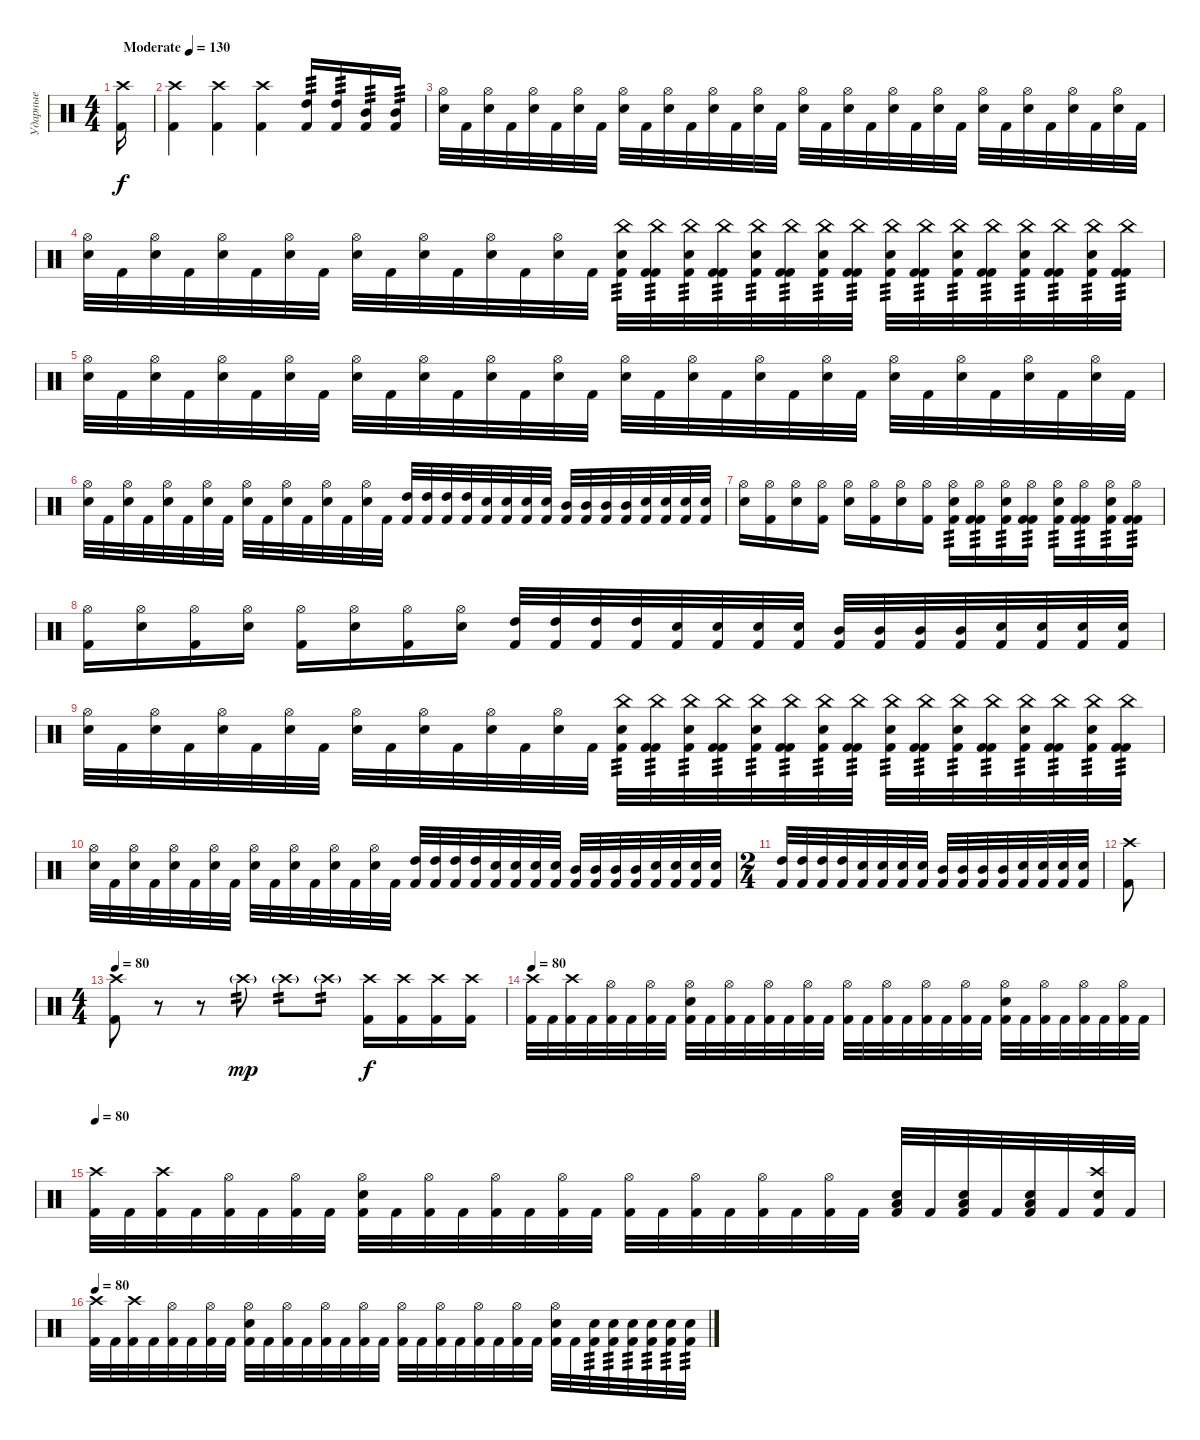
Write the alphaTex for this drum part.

\track ("Ударные" "Ударные") {instrument percussion}
\staff {score}
\articulation defaults
\ts (4 4)
\tempo (130 "Moderate")
\clef neutral
\ks c
("Kick (hit) 2" "Crash high (hit)").16{dy f} |
("Kick (hit) 2" "Crash high (hit)").4 ("Crash high (hit)" "Kick (hit) 2").4 ("Kick (hit) 2" "Crash high (hit)").4 ("Kick (hit) 2" "High Tom (hit)").16{tp 3} ("Kick (hit) 2" "High Tom (hit)").16{tp 3} ("Kick (hit) 2" "Mid Tom (hit)").16{tp 3} ("Kick (hit) 2" "Mid Tom (hit)").16{tp 3} |
("Electric Snare (hit)" "Hi-Hat (open)").32 "Kick (hit) 2".32 ("Electric Snare (hit)" "Hi-Hat (open)").32 "Kick (hit) 2".32 ("Electric Snare (hit)" "Hi-Hat (open)").32 "Kick (hit) 2".32 ("Electric Snare (hit)" "Hi-Hat (open)").32 "Kick (hit) 2".32 ("Electric Snare (hit)" "Hi-Hat (open)").32 "Kick (hit) 2".32 ("Electric Snare (hit)" "Hi-Hat (open)").32 "Kick (hit) 2".32 ("Electric Snare (hit)" "Hi-Hat (open)").32 "Kick (hit) 2".32 ("Electric Snare (hit)" "Hi-Hat (open)").32 "Kick (hit) 2".32 ("Electric Snare (hit)" "Hi-Hat (open)").32 "Kick (hit) 2".32 ("Electric Snare (hit)" "Hi-Hat (open)").32 "Kick (hit) 2".32 ("Electric Snare (hit)" "Hi-Hat (open)").32 "Kick (hit) 2".32 ("Electric Snare (hit)" "Hi-Hat (open)").32 "Kick (hit) 2".32 ("Electric Snare (hit)" "Hi-Hat (open)").32 "Kick (hit) 2".32 ("Electric Snare (hit)" "Hi-Hat (open)").32 "Kick (hit) 2".32 ("Electric Snare (hit)" "Hi-Hat (open)").32 "Kick (hit) 2".32 ("Electric Snare (hit)" "Hi-Hat (open)").32 "Kick (hit) 2".32 |
("Electric Snare (hit)" "Hi-Hat (open)").32 "Kick (hit) 2".32 ("Electric Snare (hit)" "Hi-Hat (open)").32 "Kick (hit) 2".32 ("Electric Snare (hit)" "Hi-Hat (open)").32 "Kick (hit) 2".32 ("Electric Snare (hit)" "Hi-Hat (open)").32 "Kick (hit) 2".32 ("Electric Snare (hit)" "Hi-Hat (open)").32 "Kick (hit) 2".32 ("Electric Snare (hit)" "Hi-Hat (open)").32 "Kick (hit) 2".32 ("Electric Snare (hit)" "Hi-Hat (open)").32 "Kick (hit) 2".32 ("Electric Snare (hit)" "Hi-Hat (open)").32 "Kick (hit) 2".32 ("Kick (hit) 2" "Electric Snare (hit)" "China (hit)").32{tp 3} ("Kick (hit) 2" "Kick (hit) 2" "China (hit)").32{tp 3} ("Kick (hit) 2" "Electric Snare (hit)" "China (hit)").32{tp 3} ("Kick (hit) 2" "Kick (hit) 2" "China (hit)").32{tp 3} ("Kick (hit) 2" "Electric Snare (hit)" "China (hit)").32{tp 3} ("Kick (hit) 2" "Kick (hit) 2" "China (hit)").32{tp 3} ("Kick (hit) 2" "Electric Snare (hit)" "China (hit)").32{tp 3} ("Kick (hit) 2" "Kick (hit) 2" "China (hit)").32{tp 3} ("Kick (hit) 2" "Electric Snare (hit)" "China (hit)").32{tp 3} ("Kick (hit) 2" "Kick (hit) 2" "China (hit)").32{tp 3} ("Kick (hit) 2" "Electric Snare (hit)" "China (hit)").32{tp 3} ("Kick (hit) 2" "Kick (hit) 2" "China (hit)").32{tp 3} ("Kick (hit) 2" "Electric Snare (hit)" "China (hit)").32{tp 3} ("Kick (hit) 2" "Kick (hit) 2" "China (hit)").32{tp 3} ("Kick (hit) 2" "Electric Snare (hit)" "China (hit)").32{tp 3} ("Kick (hit) 2" "Kick (hit) 2" "China (hit)").32{tp 3} |
("Electric Snare (hit)" "Hi-Hat (open)").32 "Kick (hit) 2".32 ("Electric Snare (hit)" "Hi-Hat (open)").32 "Kick (hit) 2".32 ("Electric Snare (hit)" "Hi-Hat (open)").32 "Kick (hit) 2".32 ("Electric Snare (hit)" "Hi-Hat (open)").32 "Kick (hit) 2".32 ("Electric Snare (hit)" "Hi-Hat (open)").32 "Kick (hit) 2".32 ("Electric Snare (hit)" "Hi-Hat (open)").32 "Kick (hit) 2".32 ("Electric Snare (hit)" "Hi-Hat (open)").32 "Kick (hit) 2".32 ("Electric Snare (hit)" "Hi-Hat (open)").32 "Kick (hit) 2".32 ("Electric Snare (hit)" "Hi-Hat (open)").32 "Kick (hit) 2".32 ("Electric Snare (hit)" "Hi-Hat (open)").32 "Kick (hit) 2".32 ("Electric Snare (hit)" "Hi-Hat (open)").32 "Kick (hit) 2".32 ("Electric Snare (hit)" "Hi-Hat (open)").32 "Kick (hit) 2".32 ("Electric Snare (hit)" "Hi-Hat (open)").32 "Kick (hit) 2".32 ("Electric Snare (hit)" "Hi-Hat (open)").32 "Kick (hit) 2".32 ("Electric Snare (hit)" "Hi-Hat (open)").32 "Kick (hit) 2".32 ("Electric Snare (hit)" "Hi-Hat (open)").32 "Kick (hit) 2".32 |
("Electric Snare (hit)" "Hi-Hat (open)").32 "Kick (hit) 2".32 ("Electric Snare (hit)" "Hi-Hat (open)").32 "Kick (hit) 2".32 ("Electric Snare (hit)" "Hi-Hat (open)").32 "Kick (hit) 2".32 ("Electric Snare (hit)" "Hi-Hat (open)").32 "Kick (hit) 2".32 ("Electric Snare (hit)" "Hi-Hat (open)").32 "Kick (hit) 2".32 ("Electric Snare (hit)" "Hi-Hat (open)").32 "Kick (hit) 2".32 ("Electric Snare (hit)" "Hi-Hat (open)").32 "Kick (hit) 2".32 ("Electric Snare (hit)" "Hi-Hat (open)").32 "Kick (hit) 2".32 ("High Tom (hit)" "Kick (hit) 2").32 ("High Tom (hit)" "Kick (hit) 2").32 ("High Tom (hit)" "Kick (hit) 2").32 ("High Tom (hit)" "Kick (hit) 2").32 ("Electric Snare (hit)" "Kick (hit) 2").32 ("Electric Snare (hit)" "Kick (hit) 2").32 ("Electric Snare (hit)" "Kick (hit) 2").32 ("Electric Snare (hit)" "Kick (hit) 2").32 ("Mid Tom (hit)" "Kick (hit) 2").32 ("Mid Tom (hit)" "Kick (hit) 2").32 ("Mid Tom (hit)" "Kick (hit) 2").32 ("Mid Tom (hit)" "Kick (hit) 2").32 ("Electric Snare (hit)" "Kick (hit) 2").32 ("Electric Snare (hit)" "Kick (hit) 2").32 ("Electric Snare (hit)" "Kick (hit) 2").32 ("Electric Snare (hit)" "Kick (hit) 2").32 |
("Hi-Hat (open)" "Electric Snare (hit)").16 ("Hi-Hat (open)" "Kick (hit) 2").16 ("Hi-Hat (open)" "Electric Snare (hit)").16 ("Hi-Hat (open)" "Kick (hit) 2").16 ("Hi-Hat (open)" "Electric Snare (hit)").16 ("Hi-Hat (open)" "Kick (hit) 2").16 ("Hi-Hat (open)" "Electric Snare (hit)").16 ("Hi-Hat (open)" "Kick (hit) 2").16 ("Hi-Hat (open)" "Electric Snare (hit)" "Kick (hit) 2").16{tp 3} ("Kick (hit) 2" "Hi-Hat (open)" "Kick (hit) 2").16{tp 3} ("Hi-Hat (open)" "Electric Snare (hit)" "Kick (hit) 2").16{tp 3} ("Kick (hit) 2" "Hi-Hat (open)" "Kick (hit) 2").16{tp 3} ("Hi-Hat (open)" "Electric Snare (hit)" "Kick (hit) 2").16{tp 3} ("Kick (hit) 2" "Hi-Hat (open)" "Kick (hit) 2").16{tp 3} ("Hi-Hat (open)" "Electric Snare (hit)" "Kick (hit) 2").16{tp 3} ("Kick (hit) 2" "Hi-Hat (open)" "Kick (hit) 2").16{tp 3} |
("Hi-Hat (open)" "Kick (hit) 2").16 ("Hi-Hat (open)" "Electric Snare (hit)").16 ("Hi-Hat (open)" "Kick (hit) 2").16 ("Hi-Hat (open)" "Electric Snare (hit)").16 ("Hi-Hat (open)" "Kick (hit) 2").16 ("Hi-Hat (open)" "Electric Snare (hit)").16 ("Hi-Hat (open)" "Kick (hit) 2").16 ("Hi-Hat (open)" "Electric Snare (hit)").16 ("High Tom (hit)" "Kick (hit) 2").32 ("High Tom (hit)" "Kick (hit) 2").32 ("High Tom (hit)" "Kick (hit) 2").32 ("High Tom (hit)" "Kick (hit) 2").32 ("Electric Snare (hit)" "Kick (hit) 2").32 ("Electric Snare (hit)" "Kick (hit) 2").32 ("Electric Snare (hit)" "Kick (hit) 2").32 ("Electric Snare (hit)" "Kick (hit) 2").32 ("Mid Tom (hit)" "Kick (hit) 2").32 ("Mid Tom (hit)" "Kick (hit) 2").32 ("Mid Tom (hit)" "Kick (hit) 2").32 ("Mid Tom (hit)" "Kick (hit) 2").32 ("Electric Snare (hit)" "Kick (hit) 2").32 ("Electric Snare (hit)" "Kick (hit) 2").32 ("Electric Snare (hit)" "Kick (hit) 2").32 ("Electric Snare (hit)" "Kick (hit) 2").32 |
("Electric Snare (hit)" "Hi-Hat (open)").32 "Kick (hit) 2".32 ("Electric Snare (hit)" "Hi-Hat (open)").32 "Kick (hit) 2".32 ("Electric Snare (hit)" "Hi-Hat (open)").32 "Kick (hit) 2".32 ("Electric Snare (hit)" "Hi-Hat (open)").32 "Kick (hit) 2".32 ("Electric Snare (hit)" "Hi-Hat (open)").32 "Kick (hit) 2".32 ("Electric Snare (hit)" "Hi-Hat (open)").32 "Kick (hit) 2".32 ("Electric Snare (hit)" "Hi-Hat (open)").32 "Kick (hit) 2".32 ("Electric Snare (hit)" "Hi-Hat (open)").32 "Kick (hit) 2".32 ("Kick (hit) 2" "Electric Snare (hit)" "China (hit)").32{tp 3} ("Kick (hit) 2" "Kick (hit) 2" "China (hit)").32{tp 3} ("Kick (hit) 2" "Electric Snare (hit)" "China (hit)").32{tp 3} ("Kick (hit) 2" "Kick (hit) 2" "China (hit)").32{tp 3} ("Kick (hit) 2" "Electric Snare (hit)" "China (hit)").32{tp 3} ("Kick (hit) 2" "Kick (hit) 2" "China (hit)").32{tp 3} ("Kick (hit) 2" "Electric Snare (hit)" "China (hit)").32{tp 3} ("Kick (hit) 2" "Kick (hit) 2" "China (hit)").32{tp 3} ("Kick (hit) 2" "Electric Snare (hit)" "China (hit)").32{tp 3} ("Kick (hit) 2" "Kick (hit) 2" "China (hit)").32{tp 3} ("Kick (hit) 2" "Electric Snare (hit)" "China (hit)").32{tp 3} ("Kick (hit) 2" "Kick (hit) 2" "China (hit)").32{tp 3} ("Kick (hit) 2" "Electric Snare (hit)" "China (hit)").32{tp 3} ("Kick (hit) 2" "Kick (hit) 2" "China (hit)").32{tp 3} ("Kick (hit) 2" "Electric Snare (hit)" "China (hit)").32{tp 3} ("Kick (hit) 2" "Kick (hit) 2" "China (hit)").32{tp 3} |
("Electric Snare (hit)" "Hi-Hat (open)").32 "Kick (hit) 2".32 ("Electric Snare (hit)" "Hi-Hat (open)").32 "Kick (hit) 2".32 ("Electric Snare (hit)" "Hi-Hat (open)").32 "Kick (hit) 2".32 ("Electric Snare (hit)" "Hi-Hat (open)").32 "Kick (hit) 2".32 ("Electric Snare (hit)" "Hi-Hat (open)").32 "Kick (hit) 2".32 ("Electric Snare (hit)" "Hi-Hat (open)").32 "Kick (hit) 2".32 ("Electric Snare (hit)" "Hi-Hat (open)").32 "Kick (hit) 2".32 ("Electric Snare (hit)" "Hi-Hat (open)").32 "Kick (hit) 2".32 ("High Tom (hit)" "Kick (hit) 2").32 ("High Tom (hit)" "Kick (hit) 2").32 ("High Tom (hit)" "Kick (hit) 2").32 ("High Tom (hit)" "Kick (hit) 2").32 ("Electric Snare (hit)" "Kick (hit) 2").32 ("Electric Snare (hit)" "Kick (hit) 2").32 ("Electric Snare (hit)" "Kick (hit) 2").32 ("Electric Snare (hit)" "Kick (hit) 2").32 ("Mid Tom (hit)" "Kick (hit) 2").32 ("Mid Tom (hit)" "Kick (hit) 2").32 ("Mid Tom (hit)" "Kick (hit) 2").32 ("Mid Tom (hit)" "Kick (hit) 2").32 ("Electric Snare (hit)" "Kick (hit) 2").32 ("Electric Snare (hit)" "Kick (hit) 2").32 ("Electric Snare (hit)" "Kick (hit) 2").32 ("Electric Snare (hit)" "Kick (hit) 2").32 |
\ts (2 4)
("High Tom (hit)" "Kick (hit) 2").32 ("High Tom (hit)" "Kick (hit) 2").32 ("High Tom (hit)" "Kick (hit) 2").32 ("High Tom (hit)" "Kick (hit) 2").32 ("Electric Snare (hit)" "Kick (hit) 2").32 ("Electric Snare (hit)" "Kick (hit) 2").32 ("Electric Snare (hit)" "Kick (hit) 2").32 ("Electric Snare (hit)" "Kick (hit) 2").32 ("Mid Tom (hit)" "Kick (hit) 2").32 ("Mid Tom (hit)" "Kick (hit) 2").32 ("Mid Tom (hit)" "Kick (hit) 2").32 ("Mid Tom (hit)" "Kick (hit) 2").32 ("Electric Snare (hit)" "Kick (hit) 2").32 ("Electric Snare (hit)" "Kick (hit) 2").32 ("Electric Snare (hit)" "Kick (hit) 2").32 ("Electric Snare (hit)" "Kick (hit) 2").32 |
("Crash high (hit)" "Kick (hit) 2").8 |
\ts (4 4)
\tempo 80
("Crash high (hit)" "Kick (hit) 2").8 r.8 r.8 "Crash high (hit)"{g}.8{tp 2 dy mp} "Crash high (hit)"{g}.8{tp 2} "Crash high (hit)"{g}.8{tp 2} ("Kick (hit) 2" "Crash high (hit)").16{dy f} ("Kick (hit) 2" "Crash high (hit)").16 ("Kick (hit) 2" "Crash high (hit)").16 ("Kick (hit) 2" "Crash high (hit)").16 |
\tempo 80
("Kick (hit) 2" "Crash high (hit)").32 "Kick (hit) 2".32 ("Kick (hit) 2" "Crash high (hit)").32 "Kick (hit) 2".32 ("Kick (hit) 2" "Hi-Hat (open)").32 "Kick (hit) 2".32 ("Kick (hit) 2" "Hi-Hat (open)").32 "Kick (hit) 2".32 ("Kick (hit) 2" "Electric Snare (hit)" "Hi-Hat (open)").32 "Kick (hit) 2".32 ("Kick (hit) 2" "Hi-Hat (open)").32 "Kick (hit) 2".32 ("Kick (hit) 2" "Hi-Hat (open)").32 "Kick (hit) 2".32 ("Kick (hit) 2" "Hi-Hat (open)").32 "Kick (hit) 2".32 ("Kick (hit) 2" "Hi-Hat (open)").32 "Kick (hit) 2".32 ("Kick (hit) 2" "Hi-Hat (open)").32 "Kick (hit) 2".32 ("Kick (hit) 2" "Hi-Hat (open)").32 "Kick (hit) 2".32 ("Kick (hit) 2" "Hi-Hat (open)").32 "Kick (hit) 2".32 ("Kick (hit) 2" "Electric Snare (hit)" "Hi-Hat (open)").32 "Kick (hit) 2".32 ("Kick (hit) 2" "Hi-Hat (open)").32 "Kick (hit) 2".32 ("Kick (hit) 2" "Hi-Hat (open)").32 "Kick (hit) 2".32 ("Kick (hit) 2" "Hi-Hat (open)").32 "Kick (hit) 2".32 |
\tempo 80
("Kick (hit) 2" "Crash high (hit)").32 "Kick (hit) 2".32 ("Kick (hit) 2" "Crash high (hit)").32 "Kick (hit) 2".32 ("Kick (hit) 2" "Hi-Hat (open)").32 "Kick (hit) 2".32 ("Kick (hit) 2" "Hi-Hat (open)").32 "Kick (hit) 2".32 ("Kick (hit) 2" "Electric Snare (hit)" "Hi-Hat (open)").32 "Kick (hit) 2".32 ("Kick (hit) 2" "Hi-Hat (open)").32 "Kick (hit) 2".32 ("Kick (hit) 2" "Hi-Hat (open)").32 "Kick (hit) 2".32 ("Kick (hit) 2" "Hi-Hat (open)").32 "Kick (hit) 2".32 ("Kick (hit) 2" "Hi-Hat (open)").32 "Kick (hit) 2".32 ("Kick (hit) 2" "Hi-Hat (open)").32 "Kick (hit) 2".32 ("Kick (hit) 2" "Hi-Hat (open)").32 "Kick (hit) 2".32 ("Kick (hit) 2" "Hi-Hat (open)").32 "Kick (hit) 2".32 ("Kick (hit) 2" "Electric Snare (hit)" "Low Floor Tom (hit)").32 "Kick (hit) 2".32 ("Kick (hit) 2" "Electric Snare (hit)" "Low Floor Tom (hit)").32 "Kick (hit) 2".32 ("Kick (hit) 2" "Electric Snare (hit)" "Low Floor Tom (hit)").32 "Kick (hit) 2".32 ("Kick (hit) 2" "Electric Snare (hit)" "Crash high (hit)").32 "Kick (hit) 2".32 |
\tempo 80
("Kick (hit) 2" "Crash high (hit)").32 "Kick (hit) 2".32 ("Kick (hit) 2" "Crash high (hit)").32 "Kick (hit) 2".32 ("Kick (hit) 2" "Hi-Hat (open)").32 "Kick (hit) 2".32 ("Kick (hit) 2" "Hi-Hat (open)").32 "Kick (hit) 2".32 ("Kick (hit) 2" "Electric Snare (hit)" "Hi-Hat (open)").32 "Kick (hit) 2".32 ("Kick (hit) 2" "Hi-Hat (open)").32 "Kick (hit) 2".32 ("Kick (hit) 2" "Hi-Hat (open)").32 "Kick (hit) 2".32 ("Kick (hit) 2" "Hi-Hat (open)").32 "Kick (hit) 2".32 ("Kick (hit) 2" "Hi-Hat (open)").32 "Kick (hit) 2".32 ("Kick (hit) 2" "Hi-Hat (open)").32 "Kick (hit) 2".32 ("Kick (hit) 2" "Hi-Hat (open)").32 "Kick (hit) 2".32 ("Kick (hit) 2" "Hi-Hat (open)").32 "Kick (hit) 2".32 ("Kick (hit) 2" "Electric Snare (hit)" "Hi-Hat (open)").32 "Kick (hit) 2".32 ("Kick (hit) 2" "Electric Snare (hit)").32{tp 3} ("Kick (hit) 2" "Electric Snare (hit)").32{tp 3} ("Kick (hit) 2" "Electric Snare (hit)").32{tp 3} ("Kick (hit) 2" "Electric Snare (hit)").32{tp 3} ("Kick (hit) 2" "Electric Snare (hit)").32{tp 3} ("Kick (hit) 2" "Electric Snare (hit)").32{tp 3}
